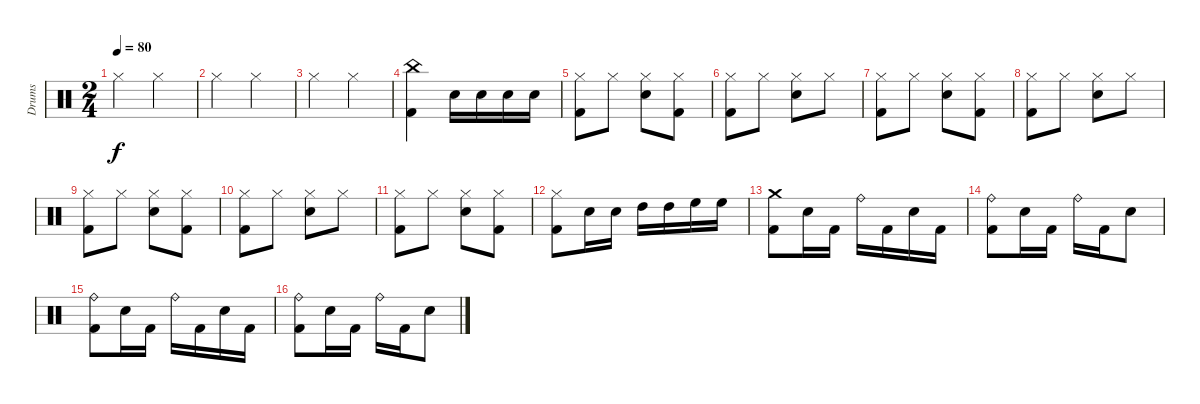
\track ("Drums" "Drums") {instrument percussion}
\staff {score}
\articulation defaults
\ts (2 4)
\tempo 80
\clef neutral
\ks aminor "Hi-Hat (closed)".4{dy f} "Hi-Hat (closed)".4
|
"Hi-Hat (closed)".4 "Hi-Hat (closed)".4 |
"Hi-Hat (closed)".4 "Hi-Hat (closed)".4 |
("China (hit)" "Kick (hit) 2").4 "Electric Snare (hit)".16 "Electric Snare (hit)".16 "Electric Snare (hit)".16 "Electric Snare (hit)".16 |
("Hi-Hat (closed)" "Kick (hit) 2").8 "Hi-Hat (closed)".8 ("Electric Snare (hit)" "Hi-Hat (closed)").8 ("Hi-Hat (closed)" "Kick (hit) 2").8 |
("Kick (hit) 2" "Hi-Hat (closed)").8 "Hi-Hat (closed)".8 ("Hi-Hat (closed)" "Electric Snare (hit)").8 "Hi-Hat (closed)".8 |
("Hi-Hat (closed)" "Kick (hit) 2").8 "Hi-Hat (closed)".8 ("Electric Snare (hit)" "Hi-Hat (closed)").8 ("Hi-Hat (closed)" "Kick (hit) 2").8 |
("Kick (hit) 2" "Hi-Hat (closed)").8 "Hi-Hat (closed)".8 ("Hi-Hat (closed)" "Electric Snare (hit)").8 "Hi-Hat (closed)".8 |
("Hi-Hat (closed)" "Kick (hit) 2").8 "Hi-Hat (closed)".8 ("Electric Snare (hit)" "Hi-Hat (closed)").8 ("Hi-Hat (closed)" "Kick (hit) 2").8 |
("Kick (hit) 2" "Hi-Hat (closed)").8 "Hi-Hat (closed)".8 ("Hi-Hat (closed)" "Electric Snare (hit)").8 "Hi-Hat (closed)".8 |
("Hi-Hat (closed)" "Kick (hit) 2").8 "Hi-Hat (closed)".8 ("Electric Snare (hit)" "Hi-Hat (closed)").8 ("Hi-Hat (closed)" "Kick (hit) 2").8 |
("Kick (hit) 2" "Hi-Hat (closed)").8 "Electric Snare (hit)".16 "Electric Snare (hit)".16 "High Tom (hit)".16 "High Tom (hit)".16 "High Floor Tom (hit)".16 "High Floor Tom (hit)".16 |
("Kick (hit) 2" "Crash medium (hit)").8 "Electric Snare (hit)".16 "Kick (hit) 2".16 "Ride (bell)".16 "Kick (hit) 2".16 "Electric Snare (hit)".16 "Kick (hit) 2".16 |
("Kick (hit) 2" "Ride (bell)").8 "Electric Snare (hit)".16 "Kick (hit) 2".16 "Ride (bell)".16 "Kick (hit) 2".16 "Electric Snare (hit)".8 |
("Kick (hit) 2" "Ride (bell)").8 "Electric Snare (hit)".16 "Kick (hit) 2".16 "Ride (bell)".16 "Kick (hit) 2".16 "Electric Snare (hit)".16 "Kick (hit) 2".16 |
("Kick (hit) 2" "Ride (bell)").8 "Electric Snare (hit)".16 "Kick (hit) 2".16 "Ride (bell)".16 "Kick (hit) 2".16 "Electric Snare (hit)".8
